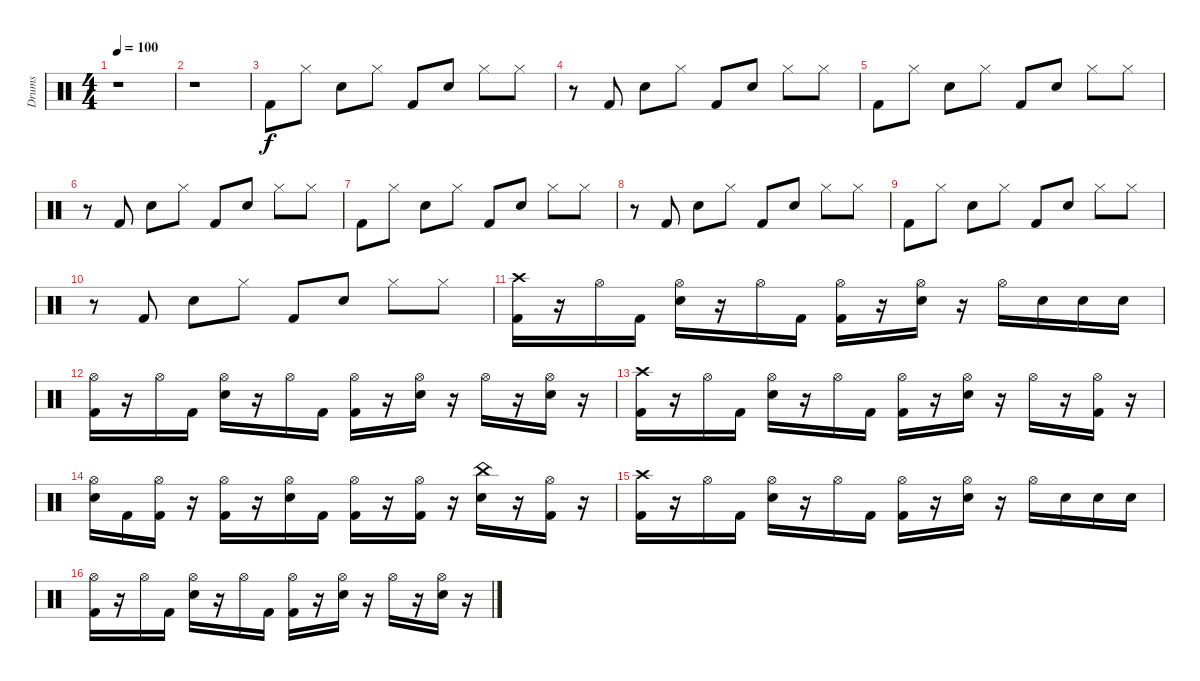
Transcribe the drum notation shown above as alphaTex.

\track ("Drums" "Drums") {instrument percussion}
\staff {score}
\articulation defaults
\ts (4 4)
\tempo 100
\clef neutral
\ks c
r.1{dy f} |
r.1 |
"Kick (hit) 2".8 "Hi-Hat (closed)".8 "Hand Clap (hit)".8 "Hi-Hat (closed)".8 "Kick (hit) 2".8 "Hand Clap (hit)".8 "Hi-Hat (closed)".8 "Hi-Hat (closed)".8 |
r.8 "Kick (hit) 2".8 "Hand Clap (hit)".8 "Hi-Hat (closed)".8 "Kick (hit) 2".8 "Hand Clap (hit)".8 "Hi-Hat (closed)".8 "Hi-Hat (closed)".8 |
"Kick (hit) 2".8 "Hi-Hat (closed)".8 "Hand Clap (hit)".8 "Hi-Hat (closed)".8 "Kick (hit) 2".8 "Hand Clap (hit)".8 "Hi-Hat (closed)".8 "Hi-Hat (closed)".8 |
r.8 "Kick (hit) 2".8 "Hand Clap (hit)".8 "Hi-Hat (closed)".8 "Kick (hit) 2".8 "Hand Clap (hit)".8 "Hi-Hat (closed)".8 "Hi-Hat (closed)".8 |
"Kick (hit) 2".8 "Hi-Hat (closed)".8 "Hand Clap (hit)".8 "Hi-Hat (closed)".8 "Kick (hit) 2".8 "Hand Clap (hit)".8 "Hi-Hat (closed)".8 "Hi-Hat (closed)".8 |
r.8 "Kick (hit) 2".8 "Hand Clap (hit)".8 "Hi-Hat (closed)".8 "Kick (hit) 2".8 "Hand Clap (hit)".8 "Hi-Hat (closed)".8 "Hi-Hat (closed)".8 |
"Kick (hit) 2".8 "Hi-Hat (closed)".8 "Hand Clap (hit)".8 "Hi-Hat (closed)".8 "Kick (hit) 2".8 "Hand Clap (hit)".8 "Hi-Hat (closed)".8 "Hi-Hat (closed)".8 |
r.8 "Kick (hit) 2".8 "Hand Clap (hit)".8 "Hi-Hat (closed)".8 "Kick (hit) 2".8 "Hand Clap (hit)".8 "Hi-Hat (closed)".8 "Hi-Hat (closed)".8 |
("Crash high (hit)" "Kick (hit) 2").16 r.16 "Hi-Hat (open)".16 "Kick (hit) 2".16 ("Hi-Hat (open)" "Electric Snare (hit)").16 r.16 "Hi-Hat (open)".16 "Kick (hit) 2".16 ("Hi-Hat (open)" "Kick (hit) 2").16 r.16 ("Hi-Hat (open)" "Electric Snare (hit)").16 r.16 "Hi-Hat (open)".16 "Electric Snare (hit)".16 "Electric Snare (hit)".16 "Electric Snare (hit)".16 |
("Hi-Hat (open)" "Kick (hit) 2").16 r.16 "Hi-Hat (open)".16 "Kick (hit) 2".16 ("Hi-Hat (open)" "Electric Snare (hit)").16 r.16 "Hi-Hat (open)".16 "Kick (hit) 2".16 ("Hi-Hat (open)" "Kick (hit) 2").16 r.16 ("Hi-Hat (open)" "Electric Snare (hit)").16 r.16 "Hi-Hat (open)".16 r.16 ("Hi-Hat (open)" "Electric Snare (hit)").16 r.16 |
("Crash high (hit)" "Kick (hit) 2").16 r.16 "Hi-Hat (open)".16 "Kick (hit) 2".16 ("Hi-Hat (open)" "Electric Snare (hit)").16 r.16 "Hi-Hat (open)".16 "Kick (hit) 2".16 ("Hi-Hat (open)" "Kick (hit) 2").16 r.16 ("Hi-Hat (open)" "Electric Snare (hit)").16 r.16 "Hi-Hat (open)".16 r.16 ("Hi-Hat (open)" "Kick (hit) 2").16 r.16 |
("Hi-Hat (open)" "Electric Snare (hit)").16 "Kick (hit) 2".16 ("Hi-Hat (open)" "Kick (hit) 2").16 r.16 ("Hi-Hat (open)" "Kick (hit) 2").16 r.16 ("Hi-Hat (open)" "Electric Snare (hit)").16 "Kick (hit) 2".16 ("Hi-Hat (open)" "Kick (hit) 2").16 r.16 ("Hi-Hat (open)" "Kick (hit) 2").16 r.16 ("China (hit)" "Electric Snare (hit)").16 r.16 ("Hi-Hat (open)" "Kick (hit) 2").16 r.16 |
("Crash high (hit)" "Kick (hit) 2").16 r.16 "Hi-Hat (open)".16 "Kick (hit) 2".16 ("Hi-Hat (open)" "Electric Snare (hit)").16 r.16 "Hi-Hat (open)".16 "Kick (hit) 2".16 ("Hi-Hat (open)" "Kick (hit) 2").16 r.16 ("Hi-Hat (open)" "Electric Snare (hit)").16 r.16 "Hi-Hat (open)".16 "Electric Snare (hit)".16 "Electric Snare (hit)".16 "Electric Snare (hit)".16 |
("Hi-Hat (open)" "Kick (hit) 2").16 r.16 "Hi-Hat (open)".16 "Kick (hit) 2".16 ("Hi-Hat (open)" "Electric Snare (hit)").16 r.16 "Hi-Hat (open)".16 "Kick (hit) 2".16 ("Hi-Hat (open)" "Kick (hit) 2").16 r.16 ("Hi-Hat (open)" "Electric Snare (hit)").16 r.16 "Hi-Hat (open)".16 r.16 ("Hi-Hat (open)" "Electric Snare (hit)").16 r.16
